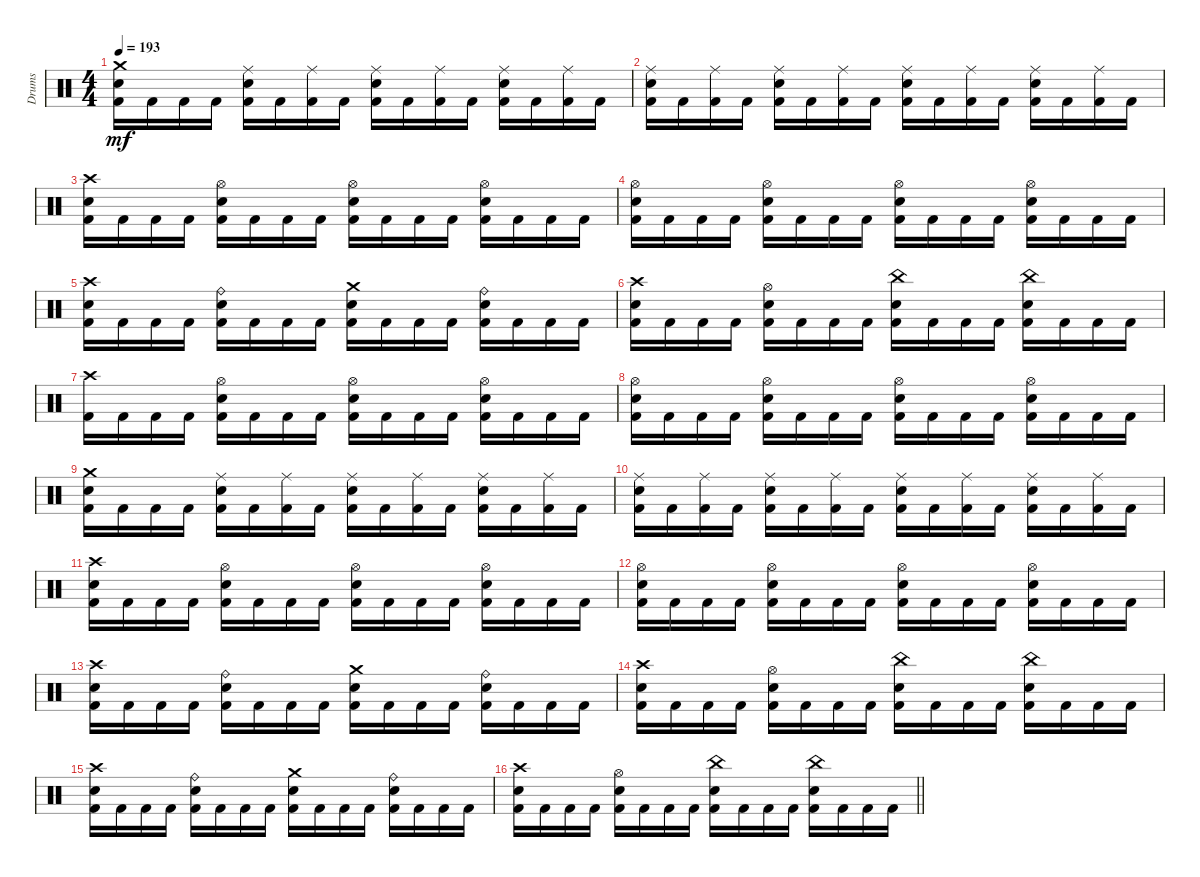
\track ("Drums" "Drums") {instrument percussion}
\staff {score}
\articulation defaults
\ts (4 4)
\tempo 193
\clef neutral
\ks c
("Crash medium (hit)" "Electric Snare (hit)" "Kick (hit) 2").16{dy mf} "Kick (hit) 2".16 "Kick (hit) 2".16 "Kick (hit) 2".16 ("Ride (middle)" "Electric Snare (hit)" "Kick (hit) 2").16 "Kick (hit) 2".16 ("Ride (middle)" "Kick (hit) 2").16 "Kick (hit) 2".16 ("Ride (middle)" "Electric Snare (hit)" "Kick (hit) 2").16 "Kick (hit) 2".16 ("Ride (middle)" "Kick (hit) 2").16 "Kick (hit) 2".16 ("Ride (middle)" "Electric Snare (hit)" "Kick (hit) 2").16 "Kick (hit) 2".16 ("Ride (middle)" "Kick (hit) 2").16 "Kick (hit) 2".16 |
("Ride (middle)" "Electric Snare (hit)" "Kick (hit) 2").16 "Kick (hit) 2".16 ("Ride (middle)" "Kick (hit) 2").16 "Kick (hit) 2".16 ("Ride (middle)" "Electric Snare (hit)" "Kick (hit) 2").16 "Kick (hit) 2".16 ("Ride (middle)" "Kick (hit) 2").16 "Kick (hit) 2".16 ("Ride (middle)" "Electric Snare (hit)" "Kick (hit) 2").16 "Kick (hit) 2".16 ("Ride (middle)" "Kick (hit) 2").16 "Kick (hit) 2".16 ("Ride (middle)" "Electric Snare (hit)" "Kick (hit) 2").16 "Kick (hit) 2".16 ("Ride (middle)" "Kick (hit) 2").16 "Kick (hit) 2".16 |
("Crash high (hit)" "Electric Snare (hit)" "Kick (hit) 2").16 "Kick (hit) 2".16 "Kick (hit) 2".16 "Kick (hit) 2".16 ("Hi-Hat (open)" "Electric Snare (hit)" "Kick (hit) 2").16 "Kick (hit) 2".16 "Kick (hit) 2".16 "Kick (hit) 2".16 ("Hi-Hat (open)" "Electric Snare (hit)" "Kick (hit) 2").16 "Kick (hit) 2".16 "Kick (hit) 2".16 "Kick (hit) 2".16 ("Hi-Hat (open)" "Electric Snare (hit)" "Kick (hit) 2").16 "Kick (hit) 2".16 "Kick (hit) 2".16 "Kick (hit) 2".16 |
("Hi-Hat (open)" "Electric Snare (hit)" "Kick (hit) 2").16 "Kick (hit) 2".16 "Kick (hit) 2".16 "Kick (hit) 2".16 ("Hi-Hat (open)" "Electric Snare (hit)" "Kick (hit) 2").16 "Kick (hit) 2".16 "Kick (hit) 2".16 "Kick (hit) 2".16 ("Hi-Hat (open)" "Electric Snare (hit)" "Kick (hit) 2").16 "Kick (hit) 2".16 "Kick (hit) 2".16 "Kick (hit) 2".16 ("Hi-Hat (open)" "Electric Snare (hit)" "Kick (hit) 2").16 "Kick (hit) 2".16 "Kick (hit) 2".16 "Kick (hit) 2".16 |
("Crash high (hit)" "Electric Snare (hit)" "Kick (hit) 2").16 "Kick (hit) 2".16 "Kick (hit) 2".16 "Kick (hit) 2".16 ("Ride (bell)" "Electric Snare (hit)" "Kick (hit) 2").16 "Kick (hit) 2".16 "Kick (hit) 2".16 "Kick (hit) 2".16 ("Crash medium (hit)" "Electric Snare (hit)" "Kick (hit) 2").16 "Kick (hit) 2".16 "Kick (hit) 2".16 "Kick (hit) 2".16 ("Ride (bell)" "Electric Snare (hit)" "Kick (hit) 2").16 "Kick (hit) 2".16 "Kick (hit) 2".16 "Kick (hit) 2".16 |
("Crash high (hit)" "Electric Snare (hit)" "Kick (hit) 2").16 "Kick (hit) 2".16 "Kick (hit) 2".16 "Kick (hit) 2".16 ("Hi-Hat (open)" "Electric Snare (hit)" "Kick (hit) 2").16 "Kick (hit) 2".16 "Kick (hit) 2".16 "Kick (hit) 2".16 ("China (hit)" "Electric Snare (hit)" "Kick (hit) 2").16 "Kick (hit) 2".16 "Kick (hit) 2".16 "Kick (hit) 2".16 ("China (hit)" "Electric Snare (hit)" "Kick (hit) 2").16 "Kick (hit) 2".16 "Kick (hit) 2".16 "Kick (hit) 2".16 |
("Crash high (hit)" "Kick (hit) 2").16 "Kick (hit) 2".16 "Kick (hit) 2".16 "Kick (hit) 2".16 ("Hi-Hat (open)" "Electric Snare (hit)" "Kick (hit) 2").16 "Kick (hit) 2".16 "Kick (hit) 2".16 "Kick (hit) 2".16 ("Hi-Hat (open)" "Electric Snare (hit)" "Kick (hit) 2").16 "Kick (hit) 2".16 "Kick (hit) 2".16 "Kick (hit) 2".16 ("Hi-Hat (open)" "Electric Snare (hit)" "Kick (hit) 2").16 "Kick (hit) 2".16 "Kick (hit) 2".16 "Kick (hit) 2".16 |
("Hi-Hat (open)" "Electric Snare (hit)" "Kick (hit) 2").16 "Kick (hit) 2".16 "Kick (hit) 2".16 "Kick (hit) 2".16 ("Hi-Hat (open)" "Electric Snare (hit)" "Kick (hit) 2").16 "Kick (hit) 2".16 "Kick (hit) 2".16 "Kick (hit) 2".16 ("Hi-Hat (open)" "Electric Snare (hit)" "Kick (hit) 2").16 "Kick (hit) 2".16 "Kick (hit) 2".16 "Kick (hit) 2".16 ("Hi-Hat (open)" "Electric Snare (hit)" "Kick (hit) 2").16 "Kick (hit) 2".16 "Kick (hit) 2".16 "Kick (hit) 2".16 |
("Crash medium (hit)" "Electric Snare (hit)" "Kick (hit) 2").16 "Kick (hit) 2".16 "Kick (hit) 2".16 "Kick (hit) 2".16 ("Ride (middle)" "Electric Snare (hit)" "Kick (hit) 2").16 "Kick (hit) 2".16 ("Ride (middle)" "Kick (hit) 2").16 "Kick (hit) 2".16 ("Ride (middle)" "Electric Snare (hit)" "Kick (hit) 2").16 "Kick (hit) 2".16 ("Ride (middle)" "Kick (hit) 2").16 "Kick (hit) 2".16 ("Ride (middle)" "Electric Snare (hit)" "Kick (hit) 2").16 "Kick (hit) 2".16 ("Ride (middle)" "Kick (hit) 2").16 "Kick (hit) 2".16 |
("Ride (middle)" "Electric Snare (hit)" "Kick (hit) 2").16 "Kick (hit) 2".16 ("Ride (middle)" "Kick (hit) 2").16 "Kick (hit) 2".16 ("Ride (middle)" "Electric Snare (hit)" "Kick (hit) 2").16 "Kick (hit) 2".16 ("Ride (middle)" "Kick (hit) 2").16 "Kick (hit) 2".16 ("Ride (middle)" "Electric Snare (hit)" "Kick (hit) 2").16 "Kick (hit) 2".16 ("Ride (middle)" "Kick (hit) 2").16 "Kick (hit) 2".16 ("Ride (middle)" "Electric Snare (hit)" "Kick (hit) 2").16 "Kick (hit) 2".16 ("Ride (middle)" "Kick (hit) 2").16 "Kick (hit) 2".16 |
("Crash high (hit)" "Electric Snare (hit)" "Kick (hit) 2").16 "Kick (hit) 2".16 "Kick (hit) 2".16 "Kick (hit) 2".16 ("Hi-Hat (open)" "Electric Snare (hit)" "Kick (hit) 2").16 "Kick (hit) 2".16 "Kick (hit) 2".16 "Kick (hit) 2".16 ("Hi-Hat (open)" "Electric Snare (hit)" "Kick (hit) 2").16 "Kick (hit) 2".16 "Kick (hit) 2".16 "Kick (hit) 2".16 ("Hi-Hat (open)" "Electric Snare (hit)" "Kick (hit) 2").16 "Kick (hit) 2".16 "Kick (hit) 2".16 "Kick (hit) 2".16 |
("Hi-Hat (open)" "Electric Snare (hit)" "Kick (hit) 2").16 "Kick (hit) 2".16 "Kick (hit) 2".16 "Kick (hit) 2".16 ("Hi-Hat (open)" "Electric Snare (hit)" "Kick (hit) 2").16 "Kick (hit) 2".16 "Kick (hit) 2".16 "Kick (hit) 2".16 ("Hi-Hat (open)" "Electric Snare (hit)" "Kick (hit) 2").16 "Kick (hit) 2".16 "Kick (hit) 2".16 "Kick (hit) 2".16 ("Hi-Hat (open)" "Electric Snare (hit)" "Kick (hit) 2").16 "Kick (hit) 2".16 "Kick (hit) 2".16 "Kick (hit) 2".16 |
("Crash high (hit)" "Electric Snare (hit)" "Kick (hit) 2").16 "Kick (hit) 2".16 "Kick (hit) 2".16 "Kick (hit) 2".16 ("Ride (bell)" "Electric Snare (hit)" "Kick (hit) 2").16 "Kick (hit) 2".16 "Kick (hit) 2".16 "Kick (hit) 2".16 ("Crash medium (hit)" "Electric Snare (hit)" "Kick (hit) 2").16 "Kick (hit) 2".16 "Kick (hit) 2".16 "Kick (hit) 2".16 ("Ride (bell)" "Electric Snare (hit)" "Kick (hit) 2").16 "Kick (hit) 2".16 "Kick (hit) 2".16 "Kick (hit) 2".16 |
("Crash high (hit)" "Electric Snare (hit)" "Kick (hit) 2").16 "Kick (hit) 2".16 "Kick (hit) 2".16 "Kick (hit) 2".16 ("Hi-Hat (open)" "Electric Snare (hit)" "Kick (hit) 2").16 "Kick (hit) 2".16 "Kick (hit) 2".16 "Kick (hit) 2".16 ("China (hit)" "Electric Snare (hit)" "Kick (hit) 2").16 "Kick (hit) 2".16 "Kick (hit) 2".16 "Kick (hit) 2".16 ("China (hit)" "Electric Snare (hit)" "Kick (hit) 2").16 "Kick (hit) 2".16 "Kick (hit) 2".16 "Kick (hit) 2".16 |
("Crash high (hit)" "Electric Snare (hit)" "Kick (hit) 2").16 "Kick (hit) 2".16 "Kick (hit) 2".16 "Kick (hit) 2".16 ("Ride (bell)" "Electric Snare (hit)" "Kick (hit) 2").16 "Kick (hit) 2".16 "Kick (hit) 2".16 "Kick (hit) 2".16 ("Crash medium (hit)" "Electric Snare (hit)" "Kick (hit) 2").16 "Kick (hit) 2".16 "Kick (hit) 2".16 "Kick (hit) 2".16 ("Ride (bell)" "Electric Snare (hit)" "Kick (hit) 2").16 "Kick (hit) 2".16 "Kick (hit) 2".16 "Kick (hit) 2".16 |
\barLineRight lightlight
("Crash high (hit)" "Electric Snare (hit)" "Kick (hit) 2").16 "Kick (hit) 2".16 "Kick (hit) 2".16 "Kick (hit) 2".16 ("Hi-Hat (open)" "Electric Snare (hit)" "Kick (hit) 2").16 "Kick (hit) 2".16 "Kick (hit) 2".16 "Kick (hit) 2".16 ("China (hit)" "Electric Snare (hit)" "Kick (hit) 2").16 "Kick (hit) 2".16 "Kick (hit) 2".16 "Kick (hit) 2".16 ("China (hit)" "Electric Snare (hit)" "Kick (hit) 2").16 "Kick (hit) 2".16 "Kick (hit) 2".16 "Kick (hit) 2".16
